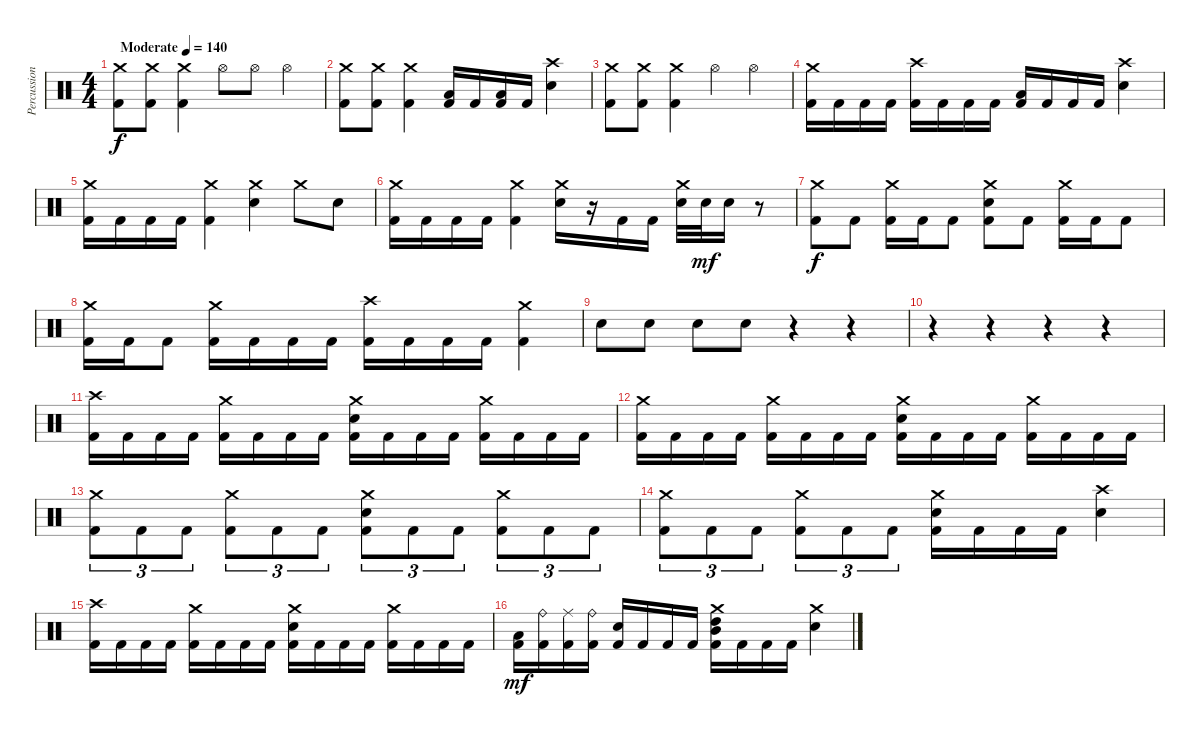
\track ("Percussion" "Percussion") {instrument percussion}
\staff {score}
\articulation defaults
\ts (4 4)
\tempo (140 "Moderate")
\clef neutral
\ks c
("Crash medium (hit)" "Kick (hit) 2").8{dy f} ("Crash medium (hit)" "Kick (hit) 2").8 ("Crash medium (hit)" "Kick (hit) 2").4 "Hi-Hat (open)".8 "Hi-Hat (open)".8 "Hi-Hat (open)".4 |
("Crash medium (hit)" "Kick (hit) 2").8 ("Crash medium (hit)" "Kick (hit) 2").8 ("Crash medium (hit)" "Kick (hit) 2").4 ("Low Tom (hit)" "Kick (hit) 2").16 "Kick (hit) 2".16 ("Low Tom (hit)" "Kick (hit) 2").16 "Kick (hit) 2".16 ("Crash high (hit)" "Electric Snare (hit)").4 |
("Crash medium (hit)" "Kick (hit) 2").8 ("Crash medium (hit)" "Kick (hit) 2").8 ("Crash medium (hit)" "Kick (hit) 2").4 "Hi-Hat (open)".4 "Hi-Hat (open)".4 |
("Crash medium (hit)" "Kick (hit) 2").16 "Kick (hit) 2".16 "Kick (hit) 2".16 "Kick (hit) 2".16 ("Crash high (hit)" "Kick (hit) 2").16 "Kick (hit) 2".16 "Kick (hit) 2".16 "Kick (hit) 2".16 ("Low Tom (hit)" "Kick (hit) 2").16 "Kick (hit) 2".16 "Kick (hit) 2".16 "Kick (hit) 2".16 ("Crash high (hit)" "Electric Snare (hit)").4 |
("Crash medium (hit)" "Kick (hit) 2").16 "Kick (hit) 2".16 "Kick (hit) 2".16 "Kick (hit) 2".16 ("Crash medium (hit)" "Kick (hit) 2").4 ("Crash medium (hit)" "Electric Snare (hit)").4 "Crash medium (hit)".8 "Electric Snare (hit)".8 |
("Crash medium (hit)" "Kick (hit) 2").16 "Kick (hit) 2".16 "Kick (hit) 2".16 "Kick (hit) 2".16 ("Crash medium (hit)" "Kick (hit) 2").4 ("Crash medium (hit)" "Electric Snare (hit)").16 r.16 "Kick (hit) 2".16 "Kick (hit) 2".16 ("Crash medium (hit)" "Electric Snare (hit)").32 "Electric Snare (hit)".32{dy mf} "Electric Snare (hit)".16 r.8 |
("Crash medium (hit)" "Kick (hit) 2").8{dy f} "Kick (hit) 2".8 ("Crash medium (hit)" "Kick (hit) 2").16 "Kick (hit) 2".16 "Kick (hit) 2".8 ("Crash medium (hit)" "Electric Snare (hit)" "Kick (hit) 2").8 "Kick (hit) 2".8 ("Crash medium (hit)" "Kick (hit) 2").16 "Kick (hit) 2".16 "Kick (hit) 2".8 |
("Crash medium (hit)" "Kick (hit) 2").16 "Kick (hit) 2".16 "Kick (hit) 2".8 ("Crash medium (hit)" "Kick (hit) 2").16 "Kick (hit) 2".16 "Kick (hit) 2".16 "Kick (hit) 2".16 ("Crash high (hit)" "Kick (hit) 2").16 "Kick (hit) 2".16 "Kick (hit) 2".16 "Kick (hit) 2".16 ("Crash medium (hit)" "Kick (hit) 2").4 |
"Electric Snare (hit)".8 "Electric Snare (hit)".8 "Electric Snare (hit)".8 "Electric Snare (hit)".8 r.4 r.4 |
r.4 r.4 r.4 r.4 |
("Crash high (hit)" "Kick (hit) 2").16 "Kick (hit) 2".16 "Kick (hit) 2".16 "Kick (hit) 2".16 ("Crash medium (hit)" "Kick (hit) 2").16 "Kick (hit) 2".16 "Kick (hit) 2".16 "Kick (hit) 2".16 ("Crash medium (hit)" "Electric Snare (hit)" "Kick (hit) 2").16 "Kick (hit) 2".16 "Kick (hit) 2".16 "Kick (hit) 2".16 ("Crash medium (hit)" "Kick (hit) 2").16 "Kick (hit) 2".16 "Kick (hit) 2".16 "Kick (hit) 2".16 |
("Crash medium (hit)" "Kick (hit) 2").16 "Kick (hit) 2".16 "Kick (hit) 2".16 "Kick (hit) 2".16 ("Crash medium (hit)" "Kick (hit) 2").16 "Kick (hit) 2".16 "Kick (hit) 2".16 "Kick (hit) 2".16 ("Crash medium (hit)" "Electric Snare (hit)" "Kick (hit) 2").16 "Kick (hit) 2".16 "Kick (hit) 2".16 "Kick (hit) 2".16 ("Crash medium (hit)" "Kick (hit) 2").16 "Kick (hit) 2".16 "Kick (hit) 2".16 "Kick (hit) 2".16 |
("Crash medium (hit)" "Kick (hit) 2").8{tu (3 2)} "Kick (hit) 2".8{tu (3 2)} "Kick (hit) 2".8{tu (3 2)} ("Crash medium (hit)" "Kick (hit) 2").8{tu (3 2)} "Kick (hit) 2".8{tu (3 2)} "Kick (hit) 2".8{tu (3 2)} ("Crash medium (hit)" "Electric Snare (hit)" "Kick (hit) 2").8{tu (3 2)} "Kick (hit) 2".8{tu (3 2)} "Kick (hit) 2".8{tu (3 2)} ("Crash medium (hit)" "Kick (hit) 2").8{tu (3 2)} "Kick (hit) 2".8{tu (3 2)} "Kick (hit) 2".8{tu (3 2)} |
("Crash medium (hit)" "Kick (hit) 2").8{tu (3 2)} "Kick (hit) 2".8{tu (3 2)} "Kick (hit) 2".8{tu (3 2)} ("Crash medium (hit)" "Kick (hit) 2").8{tu (3 2)} "Kick (hit) 2".8{tu (3 2)} "Kick (hit) 2".8{tu (3 2)} ("Crash medium (hit)" "Electric Snare (hit)" "Kick (hit) 2").16 "Kick (hit) 2".16 "Kick (hit) 2".16 "Kick (hit) 2".16 ("Crash high (hit)" "Electric Snare (hit)").4 |
("Crash high (hit)" "Kick (hit) 2").16 "Kick (hit) 2".16 "Kick (hit) 2".16 "Kick (hit) 2".16 ("Crash medium (hit)" "Kick (hit) 2").16 "Kick (hit) 2".16 "Kick (hit) 2".16 "Kick (hit) 2".16 ("Crash medium (hit)" "Electric Snare (hit)" "Kick (hit) 2").16 "Kick (hit) 2".16 "Kick (hit) 2".16 "Kick (hit) 2".16 ("Crash medium (hit)" "Kick (hit) 2").16 "Kick (hit) 2".16 "Kick (hit) 2".16 "Kick (hit) 2".16 |
("Low Tom (hit)" "Kick (hit) 2").16{dy mf} ("Ride (bell)" "Kick (hit) 2").16 ("Ride (middle)" "Kick (hit) 2").16 ("Ride (bell)" "Kick (hit) 2").16 ("Electric Snare (hit)" "Kick (hit) 2").16 "Kick (hit) 2".16 "Kick (hit) 2".16 "Kick (hit) 2".16 ("Crash medium (hit)" "High Tom (hit)" "Mid Tom (hit)" "Kick (hit) 2").16 "Kick (hit) 2".16 "Kick (hit) 2".16 "Kick (hit) 2".16 ("Crash medium (hit)" "Electric Snare (hit)").4
